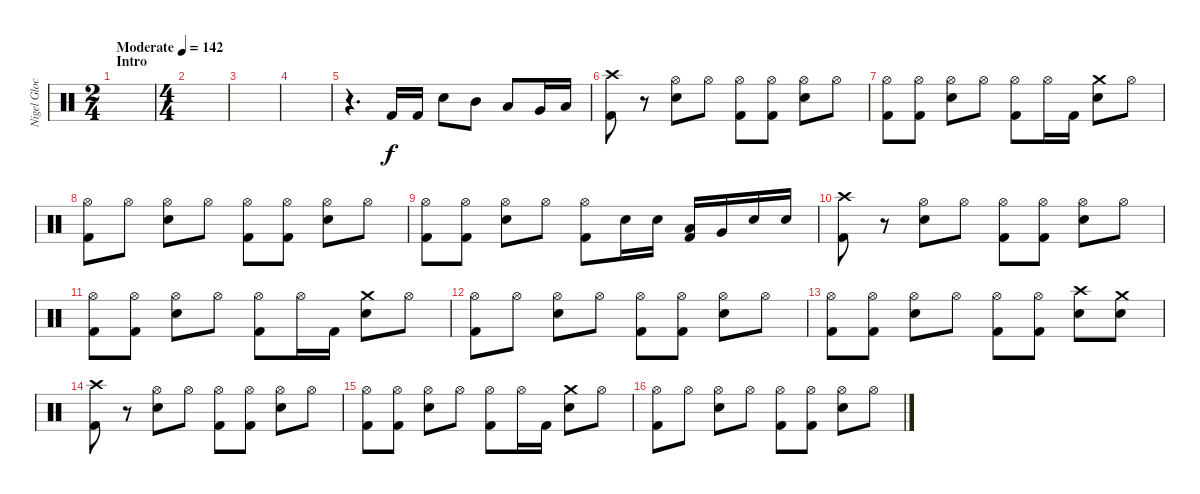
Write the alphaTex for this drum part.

\track ("Nigel Glockler (Drums)" "Nigel Gloc") {instrument percussion}
\staff {score}
\articulation defaults
\ts (2 4)
\section ("" "Intro")
\tempo (142 "Moderate")
\clef neutral
\ks c
|
\ts (4 4)
|
|
|
r.4{d} "Kick (hit) 2".16 "Kick (hit) 2".16 "Snare (hit) 2".8 "Mid Tom (hit)".8 "Low Tom (hit)".8 "Very Low Tom (hit)".16 "Low Floor Tom (hit)".16 |
("Crash high (hit)" "Kick (hit) 2").8 r.8 ("Hi-Hat (open)" "Snare (hit) 2").8 "Hi-Hat (open)".8 ("Hi-Hat (open)" "Kick (hit) 2").8 ("Hi-Hat (open)" "Kick (hit) 2").8 ("Hi-Hat (open)" "Snare (hit) 2").8 "Hi-Hat (open)".8 |
("Hi-Hat (open)" "Kick (hit) 2").8 ("Hi-Hat (open)" "Kick (hit) 2").8 ("Hi-Hat (open)" "Snare (hit) 2").8 "Hi-Hat (open)".8 ("Hi-Hat (open)" "Kick (hit) 2").8 "Hi-Hat (open)".16 "Kick (hit) 2".16 ("Crash medium (hit)" "Snare (hit) 2").8 "Hi-Hat (open)".8 |
("Hi-Hat (open)" "Kick (hit) 2").8 "Hi-Hat (open)".8 ("Hi-Hat (open)" "Snare (hit) 2").8 "Hi-Hat (open)".8 ("Hi-Hat (open)" "Kick (hit) 2").8 ("Hi-Hat (open)" "Kick (hit) 2").8 ("Hi-Hat (open)" "Snare (hit) 2").8 "Hi-Hat (open)".8 |
("Hi-Hat (open)" "Kick (hit) 2").8 ("Hi-Hat (open)" "Kick (hit) 2").8 ("Hi-Hat (open)" "Snare (hit) 2").8 "Hi-Hat (open)".8 ("Hi-Hat (open)" "Kick (hit) 2").8 "Snare (hit) 2".16 "Snare (hit) 2".16 ("Low Tom (hit)" "Kick (hit) 2").16 "Very Low Tom (hit)".16 "Snare (hit) 2".16 "Snare (hit) 2".16 |
("Crash high (hit)" "Kick (hit) 2").8 r.8 ("Hi-Hat (open)" "Snare (hit) 2").8 "Hi-Hat (open)".8 ("Hi-Hat (open)" "Kick (hit) 2").8 ("Hi-Hat (open)" "Kick (hit) 2").8 ("Hi-Hat (open)" "Snare (hit) 2").8 "Hi-Hat (open)".8 |
("Hi-Hat (open)" "Kick (hit) 2").8 ("Hi-Hat (open)" "Kick (hit) 2").8 ("Hi-Hat (open)" "Snare (hit) 2").8 "Hi-Hat (open)".8 ("Hi-Hat (open)" "Kick (hit) 2").8 "Hi-Hat (open)".16 "Kick (hit) 2".16 ("Crash medium (hit)" "Snare (hit) 2").8 "Hi-Hat (open)".8 |
("Hi-Hat (open)" "Kick (hit) 2").8 "Hi-Hat (open)".8 ("Hi-Hat (open)" "Snare (hit) 2").8 "Hi-Hat (open)".8 ("Hi-Hat (open)" "Kick (hit) 2").8 ("Hi-Hat (open)" "Kick (hit) 2").8 ("Hi-Hat (open)" "Snare (hit) 2").8 "Hi-Hat (open)".8 |
("Hi-Hat (open)" "Kick (hit) 2").8 ("Hi-Hat (open)" "Kick (hit) 2").8 ("Hi-Hat (open)" "Snare (hit) 2").8 "Hi-Hat (open)".8 ("Hi-Hat (open)" "Kick (hit) 2").8 ("Hi-Hat (open)" "Kick (hit) 2").8 ("Crash high (hit)" "Snare (hit) 2").8 ("Crash medium (hit)" "Snare (hit) 2").8 |
("Crash high (hit)" "Kick (hit) 2").8 r.8 ("Hi-Hat (open)" "Snare (hit) 2").8 "Hi-Hat (open)".8 ("Hi-Hat (open)" "Kick (hit) 2").8 ("Hi-Hat (open)" "Kick (hit) 2").8 ("Hi-Hat (open)" "Snare (hit) 2").8 "Hi-Hat (open)".8 |
("Hi-Hat (open)" "Kick (hit) 2").8 ("Hi-Hat (open)" "Kick (hit) 2").8 ("Hi-Hat (open)" "Snare (hit) 2").8 "Hi-Hat (open)".8 ("Hi-Hat (open)" "Kick (hit) 2").8 "Hi-Hat (open)".16 "Kick (hit) 2".16 ("Crash medium (hit)" "Snare (hit) 2").8 "Hi-Hat (open)".8 |
("Hi-Hat (open)" "Kick (hit) 2").8 "Hi-Hat (open)".8 ("Hi-Hat (open)" "Snare (hit) 2").8 "Hi-Hat (open)".8 ("Hi-Hat (open)" "Kick (hit) 2").8 ("Hi-Hat (open)" "Kick (hit) 2").8 ("Hi-Hat (open)" "Snare (hit) 2").8 "Hi-Hat (open)".8
